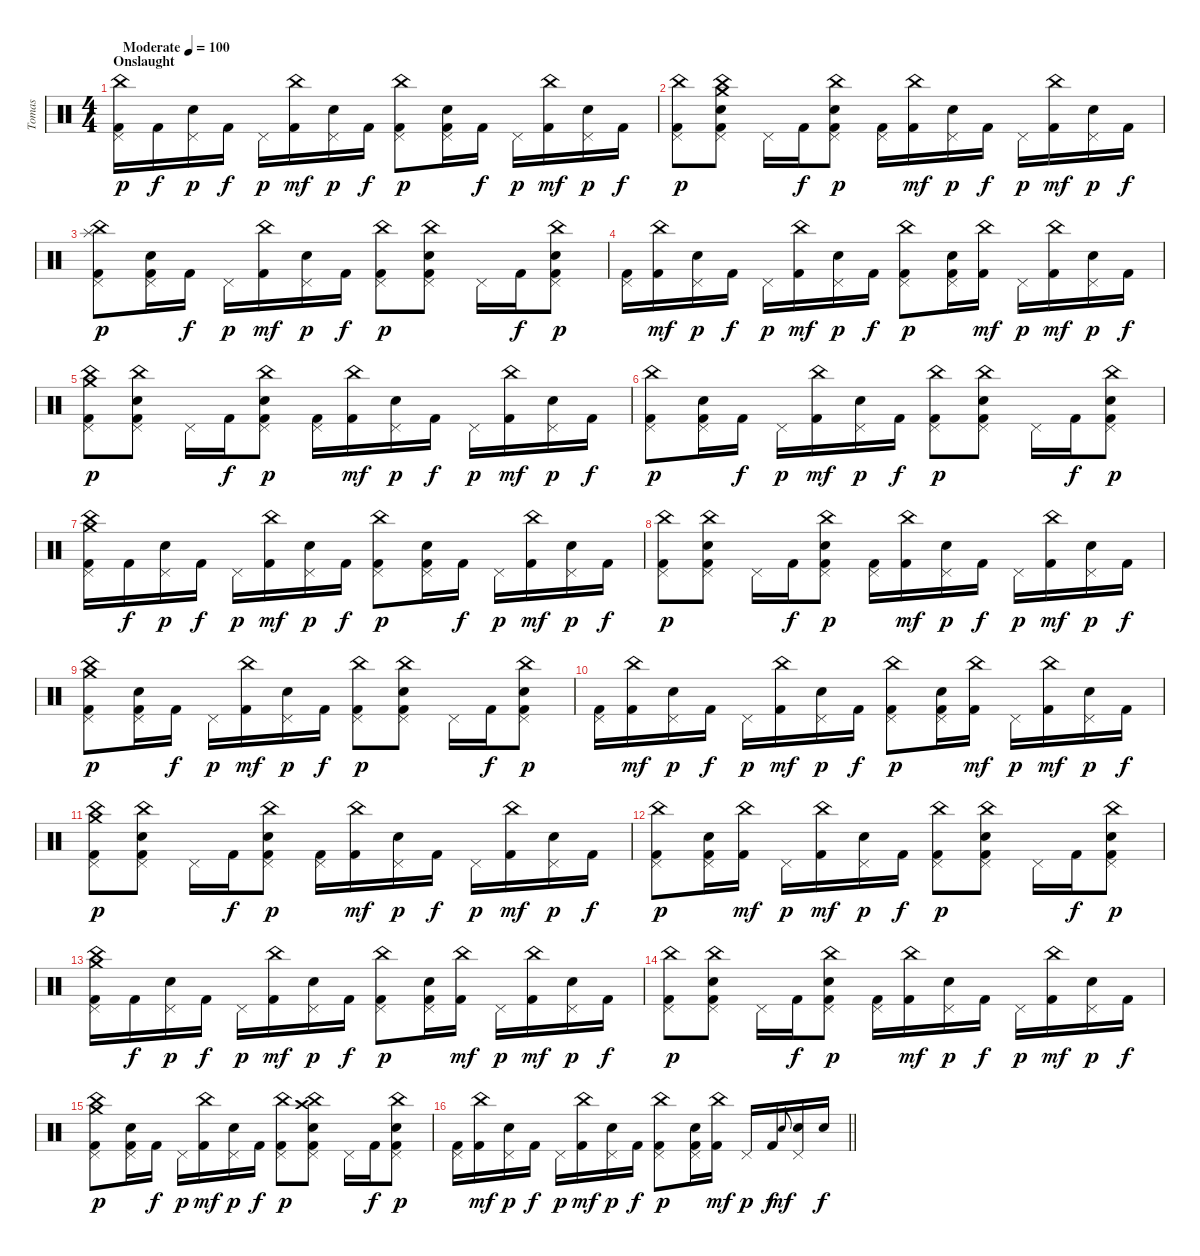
\track ("Tomas" "Tomas") {instrument percussion}
\staff {score}
\articulation defaults
\ts (4 4)
\section ("" "Onslaught")
\tempo (100 "Moderate")
\clef neutral
\ks c
("China (hit)" "Pedal Hi-Hat (hit)" "Kick (hit) 2").16{dy p} "Kick (hit) 2".16{dy f} ("Pedal Hi-Hat (hit)" "Electric Snare (hit)").16{dy p} "Kick (hit) 2".16{dy f} "Pedal Hi-Hat (hit)".16{dy p} ("China (hit)" "Kick (hit) 2").16{dy mf} ("Pedal Hi-Hat (hit)" "Electric Snare (hit)").16{dy p} "Kick (hit) 2".16{dy f} ("China (hit)" "Pedal Hi-Hat (hit)" "Kick (hit) 2").8{dy p} ("Pedal Hi-Hat (hit)" "Electric Snare (hit)" "Kick (hit) 2").16 "Kick (hit) 2".16{dy f} "Pedal Hi-Hat (hit)".16{dy p} ("China (hit)" "Kick (hit) 2").16{dy mf} ("Pedal Hi-Hat (hit)" "Electric Snare (hit)").16{dy p} "Kick (hit) 2".16{dy f} |
("China (hit)" "Pedal Hi-Hat (hit)" "Kick (hit) 2").8{dy p} ("China (hit)" "Crash medium (hit)" "Pedal Hi-Hat (hit)" "Electric Snare (hit)" "Kick (hit) 2").8 "Pedal Hi-Hat (hit)".16 "Kick (hit) 2".16{dy f} ("China (hit)" "Pedal Hi-Hat (hit)" "Electric Snare (hit)" "Kick (hit) 2").8{dy p} ("Pedal Hi-Hat (hit)" "Kick (hit) 2").16 ("China (hit)" "Kick (hit) 2").16{dy mf} ("Pedal Hi-Hat (hit)" "Electric Snare (hit)").16{dy p} "Kick (hit) 2".16{dy f} "Pedal Hi-Hat (hit)".16{dy p} ("China (hit)" "Kick (hit) 2").16{dy mf} ("Pedal Hi-Hat (hit)" "Electric Snare (hit)").16{dy p} "Kick (hit) 2".16{dy f} |
("China (hit)" "Splash (hit)" "Pedal Hi-Hat (hit)" "Kick (hit) 2").8{dy p} ("Pedal Hi-Hat (hit)" "Electric Snare (hit)" "Kick (hit) 2").16 "Kick (hit) 2".16{dy f} "Pedal Hi-Hat (hit)".16{dy p} ("China (hit)" "Kick (hit) 2").16{dy mf} ("Pedal Hi-Hat (hit)" "Electric Snare (hit)").16{dy p} "Kick (hit) 2".16{dy f} ("China (hit)" "Pedal Hi-Hat (hit)" "Kick (hit) 2").8{dy p} ("China (hit)" "Pedal Hi-Hat (hit)" "Electric Snare (hit)" "Kick (hit) 2").8 "Pedal Hi-Hat (hit)".16 "Kick (hit) 2".16{dy f} ("China (hit)" "Pedal Hi-Hat (hit)" "Electric Snare (hit)" "Kick (hit) 2").8{dy p} |
("Pedal Hi-Hat (hit)" "Kick (hit) 2").16 ("China (hit)" "Kick (hit) 2").16{dy mf} ("Pedal Hi-Hat (hit)" "Electric Snare (hit)").16{dy p} "Kick (hit) 2".16{dy f} "Pedal Hi-Hat (hit)".16{dy p} ("China (hit)" "Kick (hit) 2").16{dy mf} ("Pedal Hi-Hat (hit)" "Electric Snare (hit)").16{dy p} "Kick (hit) 2".16{dy f} ("China (hit)" "Pedal Hi-Hat (hit)" "Kick (hit) 2").8{dy p} ("Pedal Hi-Hat (hit)" "Electric Snare (hit)" "Kick (hit) 2").16 ("China (hit)" "Kick (hit) 2").16{dy mf} "Pedal Hi-Hat (hit)".16{dy p} ("China (hit)" "Kick (hit) 2").16{dy mf} ("Pedal Hi-Hat (hit)" "Electric Snare (hit)").16{dy p} "Kick (hit) 2".16{dy f} |
("China (hit)" "Crash medium (hit)" "Pedal Hi-Hat (hit)" "Kick (hit) 2").8{dy p} ("China (hit)" "Pedal Hi-Hat (hit)" "Electric Snare (hit)" "Kick (hit) 2").8 "Pedal Hi-Hat (hit)".16 "Kick (hit) 2".16{dy f} ("China (hit)" "Pedal Hi-Hat (hit)" "Electric Snare (hit)" "Kick (hit) 2").8{dy p} ("Pedal Hi-Hat (hit)" "Kick (hit) 2").16 ("China (hit)" "Kick (hit) 2").16{dy mf} ("Pedal Hi-Hat (hit)" "Electric Snare (hit)").16{dy p} "Kick (hit) 2".16{dy f} "Pedal Hi-Hat (hit)".16{dy p} ("China (hit)" "Kick (hit) 2").16{dy mf} ("Pedal Hi-Hat (hit)" "Electric Snare (hit)").16{dy p} "Kick (hit) 2".16{dy f} |
("China (hit)" "Pedal Hi-Hat (hit)" "Kick (hit) 2").8{dy p} ("Pedal Hi-Hat (hit)" "Electric Snare (hit)" "Kick (hit) 2").16 "Kick (hit) 2".16{dy f} "Pedal Hi-Hat (hit)".16{dy p} ("China (hit)" "Kick (hit) 2").16{dy mf} ("Pedal Hi-Hat (hit)" "Electric Snare (hit)").16{dy p} "Kick (hit) 2".16{dy f} ("China (hit)" "Pedal Hi-Hat (hit)" "Kick (hit) 2").8{dy p} ("China (hit)" "Pedal Hi-Hat (hit)" "Electric Snare (hit)" "Kick (hit) 2").8 "Pedal Hi-Hat (hit)".16 "Kick (hit) 2".16{dy f} ("China (hit)" "Pedal Hi-Hat (hit)" "Electric Snare (hit)" "Kick (hit) 2").8{dy p} |
("China (hit)" "Crash medium (hit)" "Pedal Hi-Hat (hit)" "Kick (hit) 2").16 "Kick (hit) 2".16{dy f} ("Pedal Hi-Hat (hit)" "Electric Snare (hit)").16{dy p} "Kick (hit) 2".16{dy f} "Pedal Hi-Hat (hit)".16{dy p} ("China (hit)" "Kick (hit) 2").16{dy mf} ("Pedal Hi-Hat (hit)" "Electric Snare (hit)").16{dy p} "Kick (hit) 2".16{dy f} ("China (hit)" "Pedal Hi-Hat (hit)" "Kick (hit) 2").8{dy p} ("Pedal Hi-Hat (hit)" "Electric Snare (hit)" "Kick (hit) 2").16 "Kick (hit) 2".16{dy f} "Pedal Hi-Hat (hit)".16{dy p} ("China (hit)" "Kick (hit) 2").16{dy mf} ("Pedal Hi-Hat (hit)" "Electric Snare (hit)").16{dy p} "Kick (hit) 2".16{dy f} |
("China (hit)" "Pedal Hi-Hat (hit)" "Kick (hit) 2").8{dy p} ("China (hit)" "Pedal Hi-Hat (hit)" "Electric Snare (hit)" "Kick (hit) 2").8 "Pedal Hi-Hat (hit)".16 "Kick (hit) 2".16{dy f} ("China (hit)" "Pedal Hi-Hat (hit)" "Electric Snare (hit)" "Kick (hit) 2").8{dy p} ("Pedal Hi-Hat (hit)" "Kick (hit) 2").16 ("China (hit)" "Kick (hit) 2").16{dy mf} ("Pedal Hi-Hat (hit)" "Electric Snare (hit)").16{dy p} "Kick (hit) 2".16{dy f} "Pedal Hi-Hat (hit)".16{dy p} ("China (hit)" "Kick (hit) 2").16{dy mf} ("Pedal Hi-Hat (hit)" "Electric Snare (hit)").16{dy p} "Kick (hit) 2".16{dy f} |
("China (hit)" "Crash medium (hit)" "Pedal Hi-Hat (hit)" "Kick (hit) 2").8{dy p} ("Pedal Hi-Hat (hit)" "Electric Snare (hit)" "Kick (hit) 2").16 "Kick (hit) 2".16{dy f} "Pedal Hi-Hat (hit)".16{dy p} ("China (hit)" "Kick (hit) 2").16{dy mf} ("Pedal Hi-Hat (hit)" "Electric Snare (hit)").16{dy p} "Kick (hit) 2".16{dy f} ("China (hit)" "Pedal Hi-Hat (hit)" "Kick (hit) 2").8{dy p} ("China (hit)" "Pedal Hi-Hat (hit)" "Electric Snare (hit)" "Kick (hit) 2").8 "Pedal Hi-Hat (hit)".16 "Kick (hit) 2".16{dy f} ("China (hit)" "Pedal Hi-Hat (hit)" "Electric Snare (hit)" "Kick (hit) 2").8{dy p} |
("Pedal Hi-Hat (hit)" "Kick (hit) 2").16 ("China (hit)" "Kick (hit) 2").16{dy mf} ("Pedal Hi-Hat (hit)" "Electric Snare (hit)").16{dy p} "Kick (hit) 2".16{dy f} "Pedal Hi-Hat (hit)".16{dy p} ("China (hit)" "Kick (hit) 2").16{dy mf} ("Pedal Hi-Hat (hit)" "Electric Snare (hit)").16{dy p} "Kick (hit) 2".16{dy f} ("China (hit)" "Pedal Hi-Hat (hit)" "Kick (hit) 2").8{dy p} ("Pedal Hi-Hat (hit)" "Electric Snare (hit)" "Kick (hit) 2").16 ("China (hit)" "Kick (hit) 2").16{dy mf} "Pedal Hi-Hat (hit)".16{dy p} ("China (hit)" "Kick (hit) 2").16{dy mf} ("Pedal Hi-Hat (hit)" "Electric Snare (hit)").16{dy p} "Kick (hit) 2".16{dy f} |
("China (hit)" "Crash medium (hit)" "Pedal Hi-Hat (hit)" "Kick (hit) 2").8{dy p} ("China (hit)" "Pedal Hi-Hat (hit)" "Electric Snare (hit)" "Kick (hit) 2").8 "Pedal Hi-Hat (hit)".16 "Kick (hit) 2".16{dy f} ("China (hit)" "Pedal Hi-Hat (hit)" "Electric Snare (hit)" "Kick (hit) 2").8{dy p} ("Pedal Hi-Hat (hit)" "Kick (hit) 2").16 ("China (hit)" "Kick (hit) 2").16{dy mf} ("Pedal Hi-Hat (hit)" "Electric Snare (hit)").16{dy p} "Kick (hit) 2".16{dy f} "Pedal Hi-Hat (hit)".16{dy p} ("China (hit)" "Kick (hit) 2").16{dy mf} ("Pedal Hi-Hat (hit)" "Electric Snare (hit)").16{dy p} "Kick (hit) 2".16{dy f} |
("China (hit)" "Pedal Hi-Hat (hit)" "Kick (hit) 2").8{dy p} ("Pedal Hi-Hat (hit)" "Electric Snare (hit)" "Kick (hit) 2").16 ("China (hit)" "Kick (hit) 2").16{dy mf} "Pedal Hi-Hat (hit)".16{dy p} ("China (hit)" "Kick (hit) 2").16{dy mf} ("Pedal Hi-Hat (hit)" "Electric Snare (hit)").16{dy p} "Kick (hit) 2".16{dy f} ("China (hit)" "Pedal Hi-Hat (hit)" "Kick (hit) 2").8{dy p} ("China (hit)" "Pedal Hi-Hat (hit)" "Electric Snare (hit)" "Kick (hit) 2").8 "Pedal Hi-Hat (hit)".16 "Kick (hit) 2".16{dy f} ("China (hit)" "Pedal Hi-Hat (hit)" "Electric Snare (hit)" "Kick (hit) 2").8{dy p} |
("China (hit)" "Crash medium (hit)" "Pedal Hi-Hat (hit)" "Kick (hit) 2").16 "Kick (hit) 2".16{dy f} ("Pedal Hi-Hat (hit)" "Electric Snare (hit)").16{dy p} "Kick (hit) 2".16{dy f} "Pedal Hi-Hat (hit)".16{dy p} ("China (hit)" "Kick (hit) 2").16{dy mf} ("Pedal Hi-Hat (hit)" "Electric Snare (hit)").16{dy p} "Kick (hit) 2".16{dy f} ("China (hit)" "Pedal Hi-Hat (hit)" "Kick (hit) 2").8{dy p} ("Pedal Hi-Hat (hit)" "Electric Snare (hit)" "Kick (hit) 2").16 ("China (hit)" "Kick (hit) 2").16{dy mf} "Pedal Hi-Hat (hit)".16{dy p} ("China (hit)" "Kick (hit) 2").16{dy mf} ("Pedal Hi-Hat (hit)" "Electric Snare (hit)").16{dy p} "Kick (hit) 2".16{dy f} |
("China (hit)" "Pedal Hi-Hat (hit)" "Kick (hit) 2").8{dy p} ("China (hit)" "Pedal Hi-Hat (hit)" "Electric Snare (hit)" "Kick (hit) 2").8 "Pedal Hi-Hat (hit)".16 "Kick (hit) 2".16{dy f} ("China (hit)" "Pedal Hi-Hat (hit)" "Electric Snare (hit)" "Kick (hit) 2").8{dy p} ("Pedal Hi-Hat (hit)" "Kick (hit) 2").16 ("China (hit)" "Kick (hit) 2").16{dy mf} ("Pedal Hi-Hat (hit)" "Electric Snare (hit)").16{dy p} "Kick (hit) 2".16{dy f} "Pedal Hi-Hat (hit)".16{dy p} ("China (hit)" "Kick (hit) 2").16{dy mf} ("Pedal Hi-Hat (hit)" "Electric Snare (hit)").16{dy p} "Kick (hit) 2".16{dy f} |
("China (hit)" "Crash medium (hit)" "Pedal Hi-Hat (hit)" "Kick (hit) 2").8{dy p} ("Pedal Hi-Hat (hit)" "Electric Snare (hit)" "Kick (hit) 2").16 "Kick (hit) 2".16{dy f} "Pedal Hi-Hat (hit)".16{dy p} ("China (hit)" "Kick (hit) 2").16{dy mf} ("Pedal Hi-Hat (hit)" "Electric Snare (hit)").16{dy p} "Kick (hit) 2".16{dy f} ("China (hit)" "Pedal Hi-Hat (hit)" "Kick (hit) 2").8{dy p} ("China (hit)" "Crash high (hit)" "Pedal Hi-Hat (hit)" "Electric Snare (hit)" "Kick (hit) 2").8 "Pedal Hi-Hat (hit)".16 "Kick (hit) 2".16{dy f} ("China (hit)" "Pedal Hi-Hat (hit)" "Electric Snare (hit)" "Kick (hit) 2").8{dy p} |
\barLineRight lightlight
("Pedal Hi-Hat (hit)" "Kick (hit) 2").16 ("China (hit)" "Kick (hit) 2").16{dy mf} ("Pedal Hi-Hat (hit)" "Electric Snare (hit)").16{dy p} "Kick (hit) 2".16{dy f} "Pedal Hi-Hat (hit)".16{dy p} ("China (hit)" "Kick (hit) 2").16{dy mf} ("Pedal Hi-Hat (hit)" "Electric Snare (hit)").16{dy p} "Kick (hit) 2".16{dy f} ("China (hit)" "Pedal Hi-Hat (hit)" "Kick (hit) 2").8{dy p} ("Pedal Hi-Hat (hit)" "Electric Snare (hit)" "Kick (hit) 2").16 ("China (hit)" "Kick (hit) 2").16{dy mf} "Pedal Hi-Hat (hit)".16{dy p} "Kick (hit) 2".16{dy f} "Electric Snare (hit)".8{gr onbeat dy mf} ("Pedal Hi-Hat (hit)" "Electric Snare (hit)").16 "Electric Snare (hit)".16{dy f}
